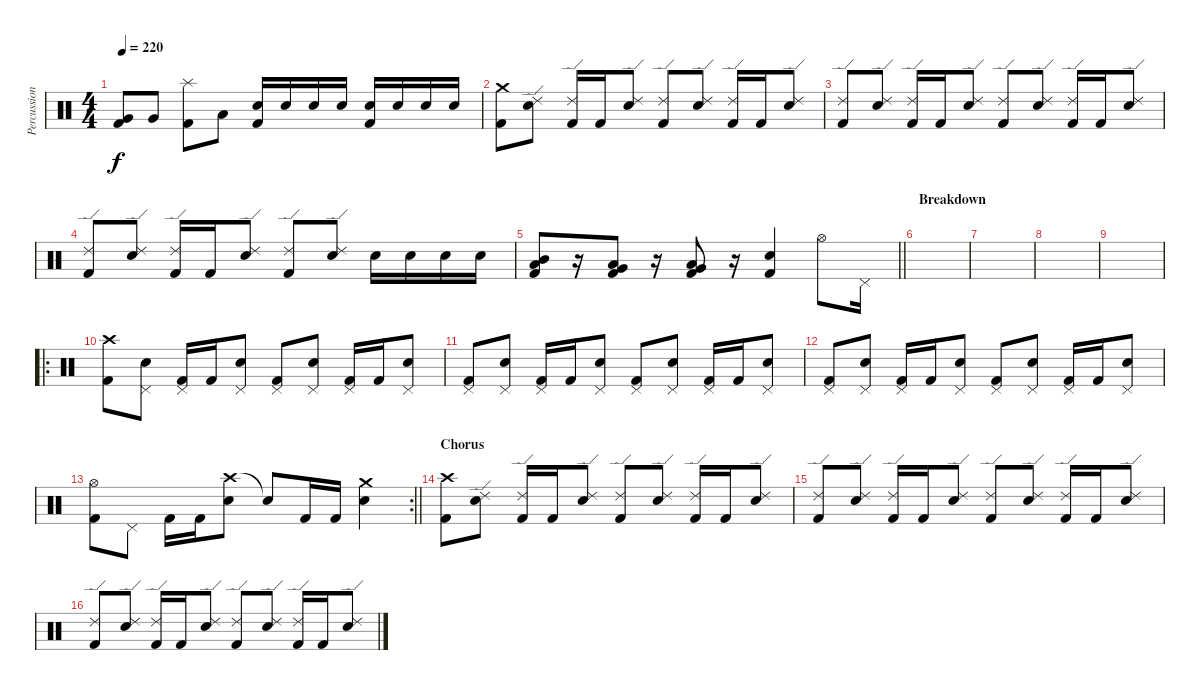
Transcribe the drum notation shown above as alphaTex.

\track ("Percussion" "Percussion") {instrument percussion}
\staff {score}
\articulation defaults
\ts (4 4)
\tempo 220
\clef neutral
\ks c
("Very Low Tom (hit)" "Kick (hit) 2").8{dy f} "Very Low Tom (hit)".8 ("Splash (hit)" "Kick (hit) 2").8 "Low Floor Tom (hit)".8 ("Snare (hit) 2" "Kick (hit) 2").16 "Snare (hit) 2".16 "Snare (hit) 2".16 "Snare (hit) 2".16 ("Snare (hit) 2" "Kick (hit) 2").16 "Snare (hit) 2".16 "Snare (hit) 2".16 "Snare (hit) 2".16 |
("Crash medium (hit)" "Kick (hit) 2").8 ("Ride (edge) 2" "Snare (hit) 2").8 ("Ride (edge) 2" "Kick (hit) 2").16 "Kick (hit) 2".16 ("Ride (edge) 2" "Snare (hit) 2").8 ("Ride (edge) 2" "Kick (hit) 2").8 ("Ride (edge) 2" "Snare (hit) 2").8 ("Ride (edge) 2" "Kick (hit) 2").16 "Kick (hit) 2".16 ("Ride (edge) 2" "Snare (hit) 2").8 |
("Ride (edge) 2" "Kick (hit) 2").8 ("Ride (edge) 2" "Snare (hit) 2").8 ("Ride (edge) 2" "Kick (hit) 2").16 "Kick (hit) 2".16 ("Ride (edge) 2" "Snare (hit) 2").8 ("Ride (edge) 2" "Kick (hit) 2").8 ("Ride (edge) 2" "Snare (hit) 2").8 ("Ride (edge) 2" "Kick (hit) 2").16 "Kick (hit) 2".16 ("Ride (edge) 2" "Snare (hit) 2").8 |
("Ride (edge) 2" "Kick (hit) 2").8 ("Ride (edge) 2" "Snare (hit) 2").8 ("Ride (edge) 2" "Kick (hit) 2").16 "Kick (hit) 2".16 ("Ride (edge) 2" "Snare (hit) 2").8 ("Ride (edge) 2" "Kick (hit) 2").8 ("Ride (edge) 2" "Snare (hit) 2").8 "Snare (hit) 2".16 "Snare (hit) 2".16 "Snare (hit) 2".16 "Snare (hit) 2".16 |
\barLineRight lightlight
("Mid Tom (hit)" "Low Tom (hit)" "Kick (hit) 2").8 r.16 ("Low Tom (hit)" "Very Low Tom (hit)" "Kick (hit) 2").8 r.16 ("Very Low Tom (hit)" "Low Floor Tom (hit)" "Kick (hit) 2").8 r.16 ("Snare (hit) 2" "Kick (hit) 2").4 "Hi-Hat (open)".8 "Pedal Hi-Hat (hit)".16 |
\section ("" "Breakdown")
|
|
|
|
\ro
("Crash high (hit)" "Kick (hit) 2").8 ("Pedal Hi-Hat (hit)" "Snare (hit) 2").8 ("Pedal Hi-Hat (hit)" "Kick (hit) 2").16 "Kick (hit) 2".16 ("Pedal Hi-Hat (hit)" "Snare (hit) 2").8 ("Pedal Hi-Hat (hit)" "Kick (hit) 2").8 ("Pedal Hi-Hat (hit)" "Snare (hit) 2").8 ("Pedal Hi-Hat (hit)" "Kick (hit) 2").16 "Kick (hit) 2".16 ("Pedal Hi-Hat (hit)" "Snare (hit) 2").8 |
("Pedal Hi-Hat (hit)" "Kick (hit) 2").8 ("Pedal Hi-Hat (hit)" "Snare (hit) 2").8 ("Pedal Hi-Hat (hit)" "Kick (hit) 2").16 "Kick (hit) 2".16 ("Pedal Hi-Hat (hit)" "Snare (hit) 2").8 ("Pedal Hi-Hat (hit)" "Kick (hit) 2").8 ("Pedal Hi-Hat (hit)" "Snare (hit) 2").8 ("Pedal Hi-Hat (hit)" "Kick (hit) 2").16 "Kick (hit) 2".16 ("Pedal Hi-Hat (hit)" "Snare (hit) 2").8 |
("Pedal Hi-Hat (hit)" "Kick (hit) 2").8 ("Pedal Hi-Hat (hit)" "Snare (hit) 2").8 ("Pedal Hi-Hat (hit)" "Kick (hit) 2").16 "Kick (hit) 2".16 ("Pedal Hi-Hat (hit)" "Snare (hit) 2").8 ("Pedal Hi-Hat (hit)" "Kick (hit) 2").8 ("Pedal Hi-Hat (hit)" "Snare (hit) 2").8 ("Pedal Hi-Hat (hit)" "Kick (hit) 2").16 "Kick (hit) 2".16 ("Pedal Hi-Hat (hit)" "Snare (hit) 2").8 |
\rc 2
\barLineRight lightlight
("Hi-Hat (open)" "Kick (hit) 2").8 "Pedal Hi-Hat (hit)".8 "Kick (hit) 2".16 "Kick (hit) 2".16 ("Crash high (hit)" "Snare (hit) 2").8 "Snare (hit)"{t}.8 "Kick (hit) 2".16 "Kick (hit) 2".16 ("Crash medium (hit)" "Snare (hit) 2").4 |
\section ("" "Chorus")
("Crash high (hit)" "Kick (hit) 2").8 ("Ride (edge) 2" "Snare (hit) 2").8 ("Ride (edge) 2" "Kick (hit) 2").16 "Kick (hit) 2".16 ("Ride (edge) 2" "Snare (hit) 2").8 ("Ride (edge) 2" "Kick (hit) 2").8 ("Ride (edge) 2" "Snare (hit) 2").8 ("Ride (edge) 2" "Kick (hit) 2").16 "Kick (hit) 2".16 ("Ride (edge) 2" "Snare (hit) 2").8 |
("Ride (edge) 2" "Kick (hit) 2").8 ("Ride (edge) 2" "Snare (hit) 2").8 ("Ride (edge) 2" "Kick (hit) 2").16 "Kick (hit) 2".16 ("Ride (edge) 2" "Snare (hit) 2").8 ("Ride (edge) 2" "Kick (hit) 2").8 ("Ride (edge) 2" "Snare (hit) 2").8 ("Ride (edge) 2" "Kick (hit) 2").16 "Kick (hit) 2".16 ("Ride (edge) 2" "Snare (hit) 2").8 |
("Ride (edge) 2" "Kick (hit) 2").8 ("Ride (edge) 2" "Snare (hit) 2").8 ("Ride (edge) 2" "Kick (hit) 2").16 "Kick (hit) 2".16 ("Ride (edge) 2" "Snare (hit) 2").8 ("Ride (edge) 2" "Kick (hit) 2").8 ("Ride (edge) 2" "Snare (hit) 2").8 ("Ride (edge) 2" "Kick (hit) 2").16 "Kick (hit) 2".16 ("Ride (edge) 2" "Snare (hit) 2").8
